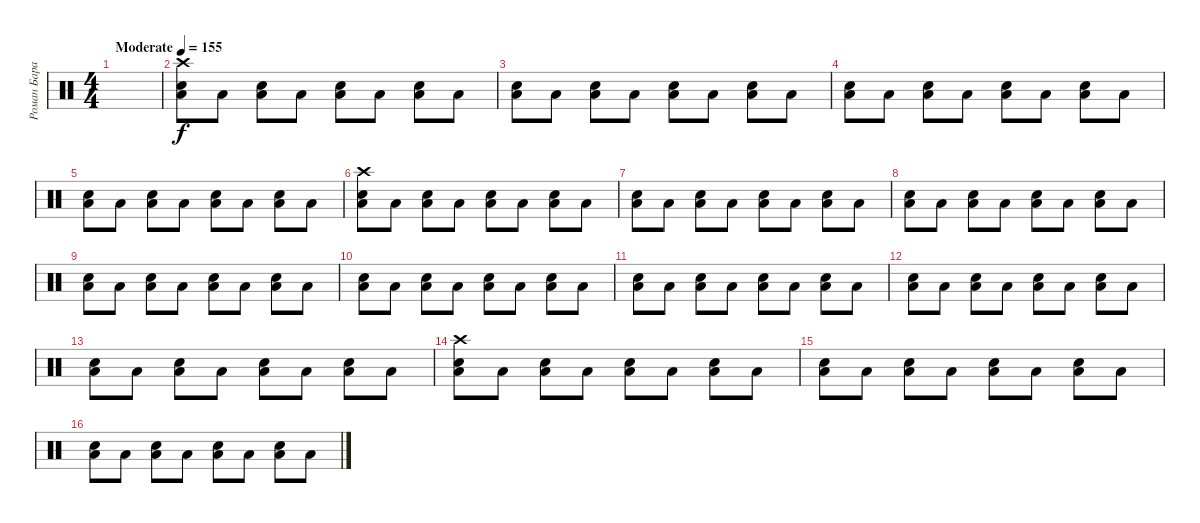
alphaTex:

\track ("Роман Баранюк (Meinl, Vic Firth, Peace)" "Роман Бара") {instrument percussion}
\staff {score}
\articulation defaults
\ts (4 4)
\tempo (155 "Moderate")
\clef neutral
\ks c
|
("Crash high (hit)" "Snare (hit) 2" "Low Tom (hit)").8 "Low Tom (hit)".8 ("Snare (hit) 2" "Low Tom (hit)").8 "Low Tom (hit)".8 ("Snare (hit) 2" "Low Tom (hit)").8 "Low Tom (hit)".8 ("Snare (hit) 2" "Low Tom (hit)").8 "Low Tom (hit)".8 |
("Snare (hit) 2" "Low Tom (hit)").8 "Low Tom (hit)".8 ("Snare (hit) 2" "Low Tom (hit)").8 "Low Tom (hit)".8 ("Snare (hit) 2" "Low Tom (hit)").8 "Low Tom (hit)".8 ("Snare (hit) 2" "Low Tom (hit)").8 "Low Tom (hit)".8 |
("Snare (hit) 2" "Low Tom (hit)").8 "Low Tom (hit)".8 ("Snare (hit) 2" "Low Tom (hit)").8 "Low Tom (hit)".8 ("Snare (hit) 2" "Low Tom (hit)").8 "Low Tom (hit)".8 ("Snare (hit) 2" "Low Tom (hit)").8 "Low Tom (hit)".8 |
("Snare (hit) 2" "Low Tom (hit)").8 "Low Tom (hit)".8 ("Snare (hit) 2" "Low Tom (hit)").8 "Low Tom (hit)".8 ("Snare (hit) 2" "Low Tom (hit)").8 "Low Tom (hit)".8 ("Snare (hit) 2" "Low Tom (hit)").8 "Low Tom (hit)".8 |
("Crash high (hit)" "Snare (hit) 2" "Low Tom (hit)").8 "Low Tom (hit)".8 ("Snare (hit) 2" "Low Tom (hit)").8 "Low Tom (hit)".8 ("Snare (hit) 2" "Low Tom (hit)").8 "Low Tom (hit)".8 ("Snare (hit) 2" "Low Tom (hit)").8 "Low Tom (hit)".8 |
("Snare (hit) 2" "Low Tom (hit)").8 "Low Tom (hit)".8 ("Snare (hit) 2" "Low Tom (hit)").8 "Low Tom (hit)".8 ("Snare (hit) 2" "Low Tom (hit)").8 "Low Tom (hit)".8 ("Snare (hit) 2" "Low Tom (hit)").8 "Low Tom (hit)".8 |
("Snare (hit) 2" "Low Tom (hit)").8 "Low Tom (hit)".8 ("Snare (hit) 2" "Low Tom (hit)").8 "Low Tom (hit)".8 ("Snare (hit) 2" "Low Tom (hit)").8 "Low Tom (hit)".8 ("Snare (hit) 2" "Low Tom (hit)").8 "Low Tom (hit)".8 |
("Snare (hit) 2" "Low Tom (hit)").8 "Low Tom (hit)".8 ("Snare (hit) 2" "Low Tom (hit)").8 "Low Tom (hit)".8 ("Snare (hit) 2" "Low Tom (hit)").8 "Low Tom (hit)".8 ("Snare (hit) 2" "Low Tom (hit)").8 "Low Tom (hit)".8 |
("Snare (hit) 2" "Low Tom (hit)").8 "Low Tom (hit)".8 ("Snare (hit) 2" "Low Tom (hit)").8 "Low Tom (hit)".8 ("Snare (hit) 2" "Low Tom (hit)").8 "Low Tom (hit)".8 ("Snare (hit) 2" "Low Tom (hit)").8 "Low Tom (hit)".8 |
("Snare (hit) 2" "Low Tom (hit)").8 "Low Tom (hit)".8 ("Snare (hit) 2" "Low Tom (hit)").8 "Low Tom (hit)".8 ("Snare (hit) 2" "Low Tom (hit)").8 "Low Tom (hit)".8 ("Snare (hit) 2" "Low Tom (hit)").8 "Low Tom (hit)".8 |
("Snare (hit) 2" "Low Tom (hit)").8 "Low Tom (hit)".8 ("Snare (hit) 2" "Low Tom (hit)").8 "Low Tom (hit)".8 ("Snare (hit) 2" "Low Tom (hit)").8 "Low Tom (hit)".8 ("Snare (hit) 2" "Low Tom (hit)").8 "Low Tom (hit)".8 |
("Snare (hit) 2" "Low Tom (hit)").8 "Low Tom (hit)".8 ("Snare (hit) 2" "Low Tom (hit)").8 "Low Tom (hit)".8 ("Snare (hit) 2" "Low Tom (hit)").8 "Low Tom (hit)".8 ("Snare (hit) 2" "Low Tom (hit)").8 "Low Tom (hit)".8 |
("Crash high (hit)" "Snare (hit) 2" "Low Tom (hit)").8 "Low Tom (hit)".8 ("Snare (hit) 2" "Low Tom (hit)").8 "Low Tom (hit)".8 ("Snare (hit) 2" "Low Tom (hit)").8 "Low Tom (hit)".8 ("Snare (hit) 2" "Low Tom (hit)").8 "Low Tom (hit)".8 |
("Snare (hit) 2" "Low Tom (hit)").8 "Low Tom (hit)".8 ("Snare (hit) 2" "Low Tom (hit)").8 "Low Tom (hit)".8 ("Snare (hit) 2" "Low Tom (hit)").8 "Low Tom (hit)".8 ("Snare (hit) 2" "Low Tom (hit)").8 "Low Tom (hit)".8 |
("Snare (hit) 2" "Low Tom (hit)").8 "Low Tom (hit)".8 ("Snare (hit) 2" "Low Tom (hit)").8 "Low Tom (hit)".8 ("Snare (hit) 2" "Low Tom (hit)").8 "Low Tom (hit)".8 ("Snare (hit) 2" "Low Tom (hit)").8 "Low Tom (hit)".8
